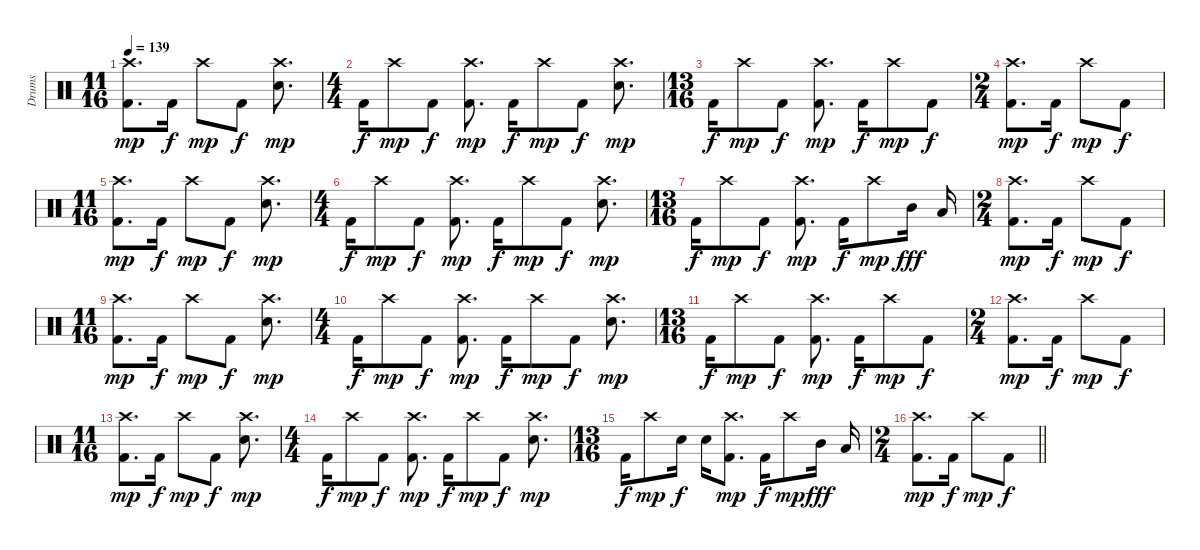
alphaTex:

\track ("Drums" "Drums") {instrument percussion}
\staff {score}
\articulation defaults
\ts (11 16)
\tempo 139
\clef neutral
\ks c
("Crash high (hit)" "Kick (hit) 2").8{d dy mp} "Kick (hit) 2".16{dy f} "Crash high (hit)".8{dy mp} "Kick (hit) 2".8{dy f} ("Crash high (hit)" "Snare (hit) 2").8{d dy mp} |
\ts (4 4)
"Kick (hit) 2".16{dy f} "Crash high (hit)".8{dy mp} "Kick (hit) 2".8{dy f} ("Crash high (hit)" "Kick (hit) 2").8{d dy mp} "Kick (hit) 2".16{dy f} "Crash high (hit)".8{dy mp} "Kick (hit) 2".8{dy f} ("Crash high (hit)" "Snare (hit) 2").8{d dy mp} |
\ts (13 16)
"Kick (hit) 2".16{dy f} "Crash high (hit)".8{dy mp} "Kick (hit) 2".8{dy f} ("Crash high (hit)" "Kick (hit) 2").8{d dy mp} "Kick (hit) 2".16{dy f} "Crash high (hit)".8{dy mp} "Kick (hit) 2".8{dy f} |
\ts (2 4)
("Crash high (hit)" "Kick (hit) 2").8{d dy mp} "Kick (hit) 2".16{dy f} "Crash high (hit)".8{dy mp} "Kick (hit) 2".8{dy f} |
\ts (11 16)
("Crash high (hit)" "Kick (hit) 2").8{d dy mp} "Kick (hit) 2".16{dy f} "Crash high (hit)".8{dy mp} "Kick (hit) 2".8{dy f} ("Crash high (hit)" "Snare (hit) 2").8{d dy mp} |
\ts (4 4)
"Kick (hit) 2".16{dy f} "Crash high (hit)".8{dy mp} "Kick (hit) 2".8{dy f} ("Crash high (hit)" "Kick (hit) 2").8{d dy mp} "Kick (hit) 2".16{dy f} "Crash high (hit)".8{dy mp} "Kick (hit) 2".8{dy f} ("Crash high (hit)" "Snare (hit) 2").8{d dy mp} |
\ts (13 16)
"Kick (hit) 2".16{dy f} "Crash high (hit)".8{dy mp} "Kick (hit) 2".8{dy f} ("Crash high (hit)" "Kick (hit) 2").8{d dy mp} "Kick (hit) 2".16{dy f} "Crash high (hit)".8{dy mp} "Mid Tom (hit)".16{dy fff} "Low Tom (hit)".16 |
\ts (2 4)
("Crash high (hit)" "Kick (hit) 2").8{d dy mp} "Kick (hit) 2".16{dy f} "Crash high (hit)".8{dy mp} "Kick (hit) 2".8{dy f} |
\ts (11 16)
("Crash high (hit)" "Kick (hit) 2").8{d dy mp} "Kick (hit) 2".16{dy f} "Crash high (hit)".8{dy mp} "Kick (hit) 2".8{dy f} ("Crash high (hit)" "Snare (hit) 2").8{d dy mp} |
\ts (4 4)
"Kick (hit) 2".16{dy f} "Crash high (hit)".8{dy mp} "Kick (hit) 2".8{dy f} ("Crash high (hit)" "Kick (hit) 2").8{d dy mp} "Kick (hit) 2".16{dy f} "Crash high (hit)".8{dy mp} "Kick (hit) 2".8{dy f} ("Crash high (hit)" "Snare (hit) 2").8{d dy mp} |
\ts (13 16)
"Kick (hit) 2".16{dy f} "Crash high (hit)".8{dy mp} "Kick (hit) 2".8{dy f} ("Crash high (hit)" "Kick (hit) 2").8{d dy mp} "Kick (hit) 2".16{dy f} "Crash high (hit)".8{dy mp} "Kick (hit) 2".8{dy f} |
\ts (2 4)
("Crash high (hit)" "Kick (hit) 2").8{d dy mp} "Kick (hit) 2".16{dy f} "Crash high (hit)".8{dy mp} "Kick (hit) 2".8{dy f} |
\ts (11 16)
("Crash high (hit)" "Kick (hit) 2").8{d dy mp} "Kick (hit) 2".16{dy f} "Crash high (hit)".8{dy mp} "Kick (hit) 2".8{dy f} ("Crash high (hit)" "Snare (hit) 2").8{d dy mp} |
\ts (4 4)
"Kick (hit) 2".16{dy f} "Crash high (hit)".8{dy mp} "Kick (hit) 2".8{dy f} ("Crash high (hit)" "Kick (hit) 2").8{d dy mp} "Kick (hit) 2".16{dy f} "Crash high (hit)".8{dy mp} "Kick (hit) 2".8{dy f} ("Crash high (hit)" "Snare (hit) 2").8{d dy mp} |
\ts (13 16)
"Kick (hit) 2".16{dy f} "Crash high (hit)".8{dy mp} "Snare (hit) 2".16{dy f} "Snare (hit) 2".16 ("Crash high (hit)" "Kick (hit) 2").8{d dy mp} "Kick (hit) 2".16{dy f} "Crash high (hit)".8{dy mp} "Mid Tom (hit)".16{dy fff} "Low Tom (hit)".16 |
\ts (2 4)
\barLineRight lightlight
("Crash high (hit)" "Kick (hit) 2").8{d dy mp} "Kick (hit) 2".16{dy f} "Crash high (hit)".8{dy mp} "Kick (hit) 2".8{dy f}
